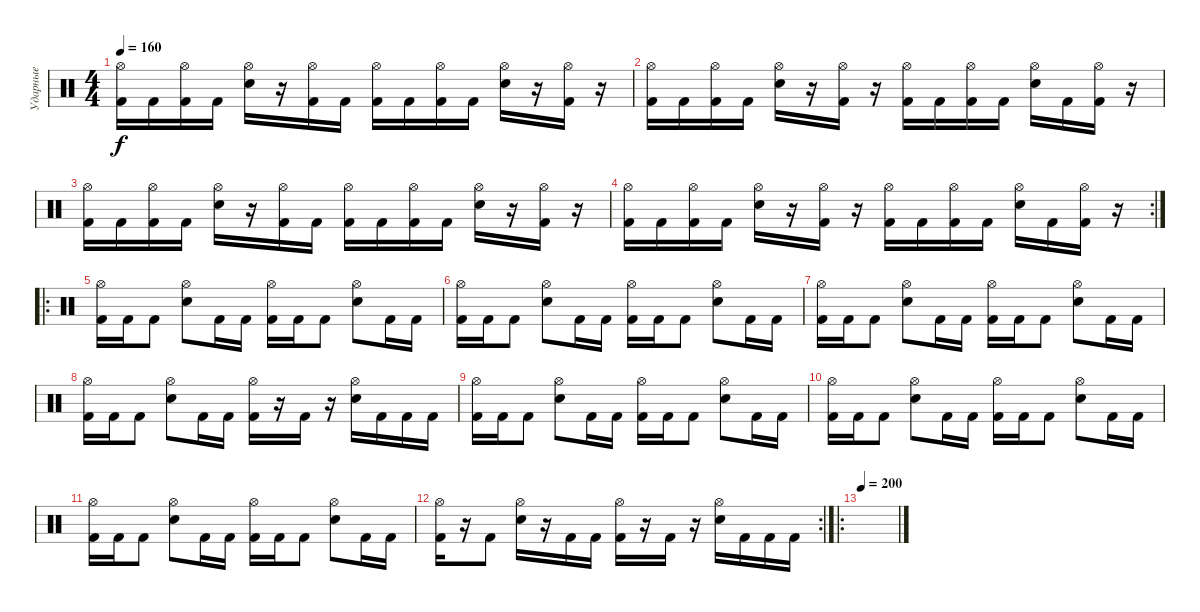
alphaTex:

\track ("Ударные" "Ударные") {instrument percussion}
\staff {score}
\articulation defaults
\ts (4 4)
\tempo 160
\clef neutral
\ks c
("Hi-Hat (open)" "Kick (hit) 2").16{dy f} "Kick (hit) 2".16 ("Hi-Hat (open)" "Kick (hit) 2").16 "Kick (hit) 2".16 ("Hi-Hat (open)" "Electric Snare (hit)").16 r.16 ("Hi-Hat (open)" "Kick (hit) 2").16 "Kick (hit) 2".16 ("Hi-Hat (open)" "Kick (hit) 2").16 "Kick (hit) 2".16 ("Hi-Hat (open)" "Kick (hit) 2").16 "Kick (hit) 2".16 ("Hi-Hat (open)" "Electric Snare (hit)").16 r.16 ("Hi-Hat (open)" "Kick (hit) 2").16 r.16 |
("Hi-Hat (open)" "Kick (hit) 2").16 "Kick (hit) 2".16 ("Hi-Hat (open)" "Kick (hit) 2").16 "Kick (hit) 2".16 ("Hi-Hat (open)" "Electric Snare (hit)").16 r.16 ("Hi-Hat (open)" "Kick (hit) 2").16 r.16 ("Hi-Hat (open)" "Kick (hit) 2").16 "Kick (hit) 2".16 ("Hi-Hat (open)" "Kick (hit) 2").16 "Kick (hit) 2".16 ("Hi-Hat (open)" "Electric Snare (hit)").16 "Kick (hit) 2".16 ("Hi-Hat (open)" "Kick (hit) 2").16 r.16 |
("Hi-Hat (open)" "Kick (hit) 2").16 "Kick (hit) 2".16 ("Hi-Hat (open)" "Kick (hit) 2").16 "Kick (hit) 2".16 ("Hi-Hat (open)" "Electric Snare (hit)").16 r.16 ("Hi-Hat (open)" "Kick (hit) 2").16 "Kick (hit) 2".16 ("Hi-Hat (open)" "Kick (hit) 2").16 "Kick (hit) 2".16 ("Hi-Hat (open)" "Kick (hit) 2").16 "Kick (hit) 2".16 ("Hi-Hat (open)" "Electric Snare (hit)").16 r.16 ("Hi-Hat (open)" "Kick (hit) 2").16 r.16 |
\rc 2
("Hi-Hat (open)" "Kick (hit) 2").16 "Kick (hit) 2".16 ("Hi-Hat (open)" "Kick (hit) 2").16 "Kick (hit) 2".16 ("Hi-Hat (open)" "Electric Snare (hit)").16 r.16 ("Hi-Hat (open)" "Kick (hit) 2").16 r.16 ("Hi-Hat (open)" "Kick (hit) 2").16 "Kick (hit) 2".16 ("Hi-Hat (open)" "Kick (hit) 2").16 "Kick (hit) 2".16 ("Hi-Hat (open)" "Electric Snare (hit)").16 "Kick (hit) 2".16 ("Hi-Hat (open)" "Kick (hit) 2").16 r.16 |
\ro
("Hi-Hat (open)" "Kick (hit) 2").16 "Kick (hit) 2".16 "Kick (hit) 2".8 ("Hi-Hat (open)" "Electric Snare (hit)").8 "Kick (hit) 2".16 "Kick (hit) 2".16 ("Hi-Hat (open)" "Kick (hit) 2").16 "Kick (hit) 2".16 "Kick (hit) 2".8 ("Hi-Hat (open)" "Electric Snare (hit)").8 "Kick (hit) 2".16 "Kick (hit) 2".16 |
("Hi-Hat (open)" "Kick (hit) 2").16 "Kick (hit) 2".16 "Kick (hit) 2".8 ("Hi-Hat (open)" "Electric Snare (hit)").8 "Kick (hit) 2".16 "Kick (hit) 2".16 ("Hi-Hat (open)" "Kick (hit) 2").16 "Kick (hit) 2".16 "Kick (hit) 2".8 ("Hi-Hat (open)" "Electric Snare (hit)").8 "Kick (hit) 2".16 "Kick (hit) 2".16 |
("Hi-Hat (open)" "Kick (hit) 2").16 "Kick (hit) 2".16 "Kick (hit) 2".8 ("Hi-Hat (open)" "Electric Snare (hit)").8 "Kick (hit) 2".16 "Kick (hit) 2".16 ("Hi-Hat (open)" "Kick (hit) 2").16 "Kick (hit) 2".16 "Kick (hit) 2".8 ("Hi-Hat (open)" "Electric Snare (hit)").8 "Kick (hit) 2".16 "Kick (hit) 2".16 |
("Hi-Hat (open)" "Kick (hit) 2").16 "Kick (hit) 2".16 "Kick (hit) 2".8 ("Hi-Hat (open)" "Electric Snare (hit)").8 "Kick (hit) 2".16 "Kick (hit) 2".16 ("Hi-Hat (open)" "Kick (hit) 2").16 r.16 "Kick (hit) 2".16 r.16 ("Hi-Hat (open)" "Electric Snare (hit)").16 "Kick (hit) 2".16 "Kick (hit) 2".16 "Kick (hit) 2".16 |
("Hi-Hat (open)" "Kick (hit) 2").16 "Kick (hit) 2".16 "Kick (hit) 2".8 ("Hi-Hat (open)" "Electric Snare (hit)").8 "Kick (hit) 2".16 "Kick (hit) 2".16 ("Hi-Hat (open)" "Kick (hit) 2").16 "Kick (hit) 2".16 "Kick (hit) 2".8 ("Hi-Hat (open)" "Electric Snare (hit)").8 "Kick (hit) 2".16 "Kick (hit) 2".16 |
("Hi-Hat (open)" "Kick (hit) 2").16 "Kick (hit) 2".16 "Kick (hit) 2".8 ("Hi-Hat (open)" "Electric Snare (hit)").8 "Kick (hit) 2".16 "Kick (hit) 2".16 ("Hi-Hat (open)" "Kick (hit) 2").16 "Kick (hit) 2".16 "Kick (hit) 2".8 ("Hi-Hat (open)" "Electric Snare (hit)").8 "Kick (hit) 2".16 "Kick (hit) 2".16 |
("Hi-Hat (open)" "Kick (hit) 2").16 "Kick (hit) 2".16 "Kick (hit) 2".8 ("Hi-Hat (open)" "Electric Snare (hit)").8 "Kick (hit) 2".16 "Kick (hit) 2".16 ("Hi-Hat (open)" "Kick (hit) 2").16 "Kick (hit) 2".16 "Kick (hit) 2".8 ("Hi-Hat (open)" "Electric Snare (hit)").8 "Kick (hit) 2".16 "Kick (hit) 2".16 |
\rc 2
("Hi-Hat (open)" "Kick (hit) 2").16 r.16 "Kick (hit) 2".8 ("Hi-Hat (open)" "Electric Snare (hit)").16 r.16 "Kick (hit) 2".16 "Kick (hit) 2".16 ("Hi-Hat (open)" "Kick (hit) 2").16 r.16 "Kick (hit) 2".16 r.16 ("Hi-Hat (open)" "Electric Snare (hit)").16 "Kick (hit) 2".16 "Kick (hit) 2".16 "Kick (hit) 2".16 |
\ro
\tempo 200
